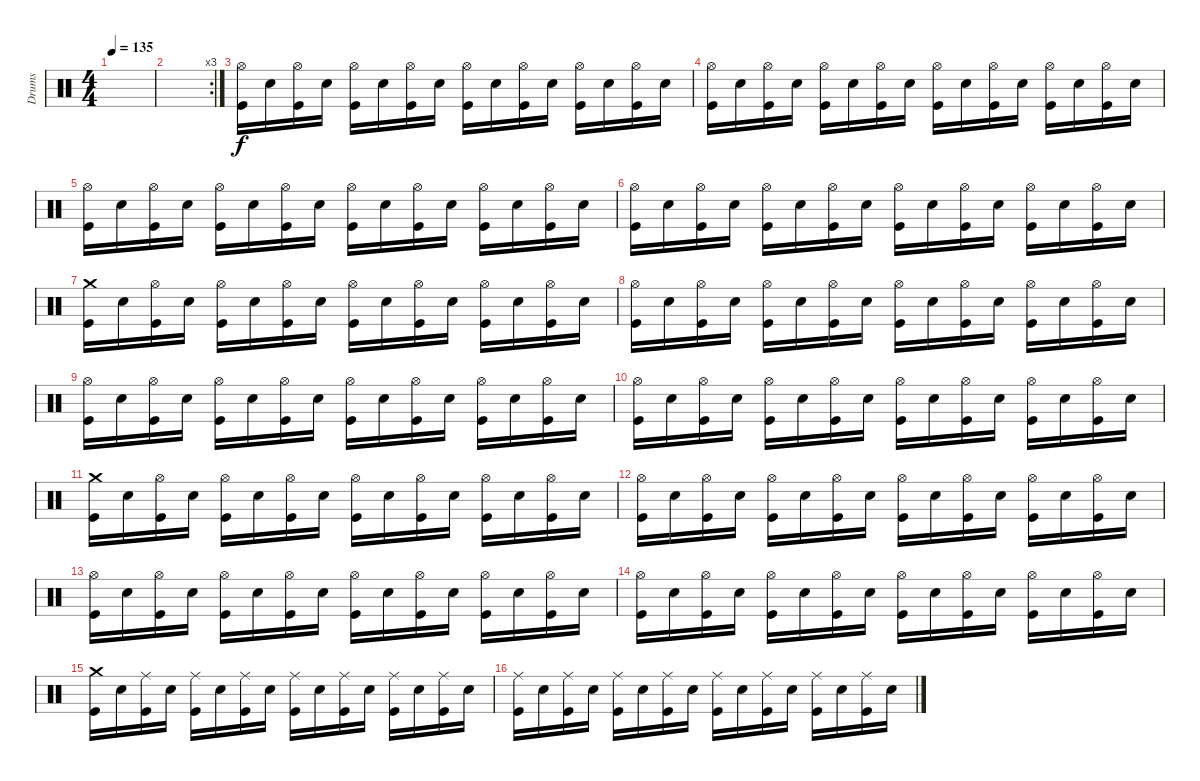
\track ("Drums" "Drums") {instrument percussion}
\staff {score}
\articulation defaults
\ts (4 4)
\tempo 135
\clef neutral
\ks c
|
\rc 3
|
("Hi-Hat (open)" "Kick (hit)").16 "Snare (hit) 2".16 ("Hi-Hat (open)" "Kick (hit)").16 "Snare (hit) 2".16 ("Hi-Hat (open)" "Kick (hit)").16 "Snare (hit) 2".16 ("Hi-Hat (open)" "Kick (hit)").16 "Snare (hit) 2".16 ("Hi-Hat (open)" "Kick (hit)").16 "Snare (hit) 2".16 ("Hi-Hat (open)" "Kick (hit)").16 "Snare (hit) 2".16 ("Hi-Hat (open)" "Kick (hit)").16 "Snare (hit) 2".16 ("Hi-Hat (open)" "Kick (hit)").16 "Snare (hit) 2".16 |
("Hi-Hat (open)" "Kick (hit)").16 "Snare (hit) 2".16 ("Hi-Hat (open)" "Kick (hit)").16 "Snare (hit) 2".16 ("Hi-Hat (open)" "Kick (hit)").16 "Snare (hit) 2".16 ("Hi-Hat (open)" "Kick (hit)").16 "Snare (hit) 2".16 ("Hi-Hat (open)" "Kick (hit)").16 "Snare (hit) 2".16 ("Hi-Hat (open)" "Kick (hit)").16 "Snare (hit) 2".16 ("Hi-Hat (open)" "Kick (hit)").16 "Snare (hit) 2".16 ("Hi-Hat (open)" "Kick (hit)").16 "Snare (hit) 2".16 |
("Hi-Hat (open)" "Kick (hit)").16 "Snare (hit) 2".16 ("Hi-Hat (open)" "Kick (hit)").16 "Snare (hit) 2".16 ("Hi-Hat (open)" "Kick (hit)").16 "Snare (hit) 2".16 ("Hi-Hat (open)" "Kick (hit)").16 "Snare (hit) 2".16 ("Hi-Hat (open)" "Kick (hit)").16 "Snare (hit) 2".16 ("Hi-Hat (open)" "Kick (hit)").16 "Snare (hit) 2".16 ("Hi-Hat (open)" "Kick (hit)").16 "Snare (hit) 2".16 ("Hi-Hat (open)" "Kick (hit)").16 "Snare (hit) 2".16 |
("Hi-Hat (open)" "Kick (hit)").16 "Snare (hit) 2".16 ("Hi-Hat (open)" "Kick (hit)").16 "Snare (hit) 2".16 ("Hi-Hat (open)" "Kick (hit)").16 "Snare (hit) 2".16 ("Hi-Hat (open)" "Kick (hit)").16 "Snare (hit) 2".16 ("Hi-Hat (open)" "Kick (hit)").16 "Snare (hit) 2".16 ("Hi-Hat (open)" "Kick (hit)").16 "Snare (hit) 2".16 ("Hi-Hat (open)" "Kick (hit)").16 "Snare (hit) 2".16 ("Hi-Hat (open)" "Kick (hit)").16 "Snare (hit) 2".16 |
("Crash medium (hit)" "Kick (hit)").16 "Snare (hit) 2".16 ("Hi-Hat (open)" "Kick (hit)").16 "Snare (hit) 2".16 ("Hi-Hat (open)" "Kick (hit)").16 "Snare (hit) 2".16 ("Hi-Hat (open)" "Kick (hit)").16 "Snare (hit) 2".16 ("Hi-Hat (open)" "Kick (hit)").16 "Snare (hit) 2".16 ("Hi-Hat (open)" "Kick (hit)").16 "Snare (hit) 2".16 ("Hi-Hat (open)" "Kick (hit)").16 "Snare (hit) 2".16 ("Hi-Hat (open)" "Kick (hit)").16 "Snare (hit) 2".16 |
("Hi-Hat (open)" "Kick (hit)").16 "Snare (hit) 2".16 ("Hi-Hat (open)" "Kick (hit)").16 "Snare (hit) 2".16 ("Hi-Hat (open)" "Kick (hit)").16 "Snare (hit) 2".16 ("Hi-Hat (open)" "Kick (hit)").16 "Snare (hit) 2".16 ("Hi-Hat (open)" "Kick (hit)").16 "Snare (hit) 2".16 ("Hi-Hat (open)" "Kick (hit)").16 "Snare (hit) 2".16 ("Hi-Hat (open)" "Kick (hit)").16 "Snare (hit) 2".16 ("Hi-Hat (open)" "Kick (hit)").16 "Snare (hit) 2".16 |
("Hi-Hat (open)" "Kick (hit)").16 "Snare (hit) 2".16 ("Hi-Hat (open)" "Kick (hit)").16 "Snare (hit) 2".16 ("Hi-Hat (open)" "Kick (hit)").16 "Snare (hit) 2".16 ("Hi-Hat (open)" "Kick (hit)").16 "Snare (hit) 2".16 ("Hi-Hat (open)" "Kick (hit)").16 "Snare (hit) 2".16 ("Hi-Hat (open)" "Kick (hit)").16 "Snare (hit) 2".16 ("Hi-Hat (open)" "Kick (hit)").16 "Snare (hit) 2".16 ("Hi-Hat (open)" "Kick (hit)").16 "Snare (hit) 2".16 |
("Hi-Hat (open)" "Kick (hit)").16 "Snare (hit) 2".16 ("Hi-Hat (open)" "Kick (hit)").16 "Snare (hit) 2".16 ("Hi-Hat (open)" "Kick (hit)").16 "Snare (hit) 2".16 ("Hi-Hat (open)" "Kick (hit)").16 "Snare (hit) 2".16 ("Hi-Hat (open)" "Kick (hit)").16 "Snare (hit) 2".16 ("Hi-Hat (open)" "Kick (hit)").16 "Snare (hit) 2".16 ("Hi-Hat (open)" "Kick (hit)").16 "Snare (hit) 2".16 ("Hi-Hat (open)" "Kick (hit)").16 "Snare (hit) 2".16 |
("Crash medium (hit)" "Kick (hit)").16 "Snare (hit) 2".16 ("Hi-Hat (open)" "Kick (hit)").16 "Snare (hit) 2".16 ("Hi-Hat (open)" "Kick (hit)").16 "Snare (hit) 2".16 ("Hi-Hat (open)" "Kick (hit)").16 "Snare (hit) 2".16 ("Hi-Hat (open)" "Kick (hit)").16 "Snare (hit) 2".16 ("Hi-Hat (open)" "Kick (hit)").16 "Snare (hit) 2".16 ("Hi-Hat (open)" "Kick (hit)").16 "Snare (hit) 2".16 ("Hi-Hat (open)" "Kick (hit)").16 "Snare (hit) 2".16 |
("Hi-Hat (open)" "Kick (hit)").16 "Snare (hit) 2".16 ("Hi-Hat (open)" "Kick (hit)").16 "Snare (hit) 2".16 ("Hi-Hat (open)" "Kick (hit)").16 "Snare (hit) 2".16 ("Hi-Hat (open)" "Kick (hit)").16 "Snare (hit) 2".16 ("Hi-Hat (open)" "Kick (hit)").16 "Snare (hit) 2".16 ("Hi-Hat (open)" "Kick (hit)").16 "Snare (hit) 2".16 ("Hi-Hat (open)" "Kick (hit)").16 "Snare (hit) 2".16 ("Hi-Hat (open)" "Kick (hit)").16 "Snare (hit) 2".16 |
("Hi-Hat (open)" "Kick (hit)").16 "Snare (hit) 2".16 ("Hi-Hat (open)" "Kick (hit)").16 "Snare (hit) 2".16 ("Hi-Hat (open)" "Kick (hit)").16 "Snare (hit) 2".16 ("Hi-Hat (open)" "Kick (hit)").16 "Snare (hit) 2".16 ("Hi-Hat (open)" "Kick (hit)").16 "Snare (hit) 2".16 ("Hi-Hat (open)" "Kick (hit)").16 "Snare (hit) 2".16 ("Hi-Hat (open)" "Kick (hit)").16 "Snare (hit) 2".16 ("Hi-Hat (open)" "Kick (hit)").16 "Snare (hit) 2".16 |
("Hi-Hat (open)" "Kick (hit)").16 "Snare (hit) 2".16 ("Hi-Hat (open)" "Kick (hit)").16 "Snare (hit) 2".16 ("Hi-Hat (open)" "Kick (hit)").16 "Snare (hit) 2".16 ("Hi-Hat (open)" "Kick (hit)").16 "Snare (hit) 2".16 ("Hi-Hat (open)" "Kick (hit)").16 "Snare (hit) 2".16 ("Hi-Hat (open)" "Kick (hit)").16 "Snare (hit) 2".16 ("Hi-Hat (open)" "Kick (hit)").16 "Snare (hit) 2".16 ("Hi-Hat (open)" "Kick (hit)").16 "Snare (hit) 2".16 |
("Crash medium (hit)" "Kick (hit)").16 "Snare (hit) 2".16 ("Ride (middle)" "Kick (hit)").16 "Snare (hit) 2".16 ("Ride (middle)" "Kick (hit)").16 "Snare (hit) 2".16 ("Ride (middle)" "Kick (hit)").16 "Snare (hit) 2".16 ("Ride (middle)" "Kick (hit)").16 "Snare (hit) 2".16 ("Ride (middle)" "Kick (hit)").16 "Snare (hit) 2".16 ("Ride (middle)" "Kick (hit)").16 "Snare (hit) 2".16 ("Ride (middle)" "Kick (hit)").16 "Snare (hit) 2".16 |
("Ride (middle)" "Kick (hit)").16 "Snare (hit) 2".16 ("Ride (middle)" "Kick (hit)").16 "Snare (hit) 2".16 ("Ride (middle)" "Kick (hit)").16 "Snare (hit) 2".16 ("Ride (middle)" "Kick (hit)").16 "Snare (hit) 2".16 ("Ride (middle)" "Kick (hit)").16 "Snare (hit) 2".16 ("Ride (middle)" "Kick (hit)").16 "Snare (hit) 2".16 ("Ride (middle)" "Kick (hit)").16 "Snare (hit) 2".16 ("Ride (middle)" "Kick (hit)").16 "Snare (hit) 2".16
